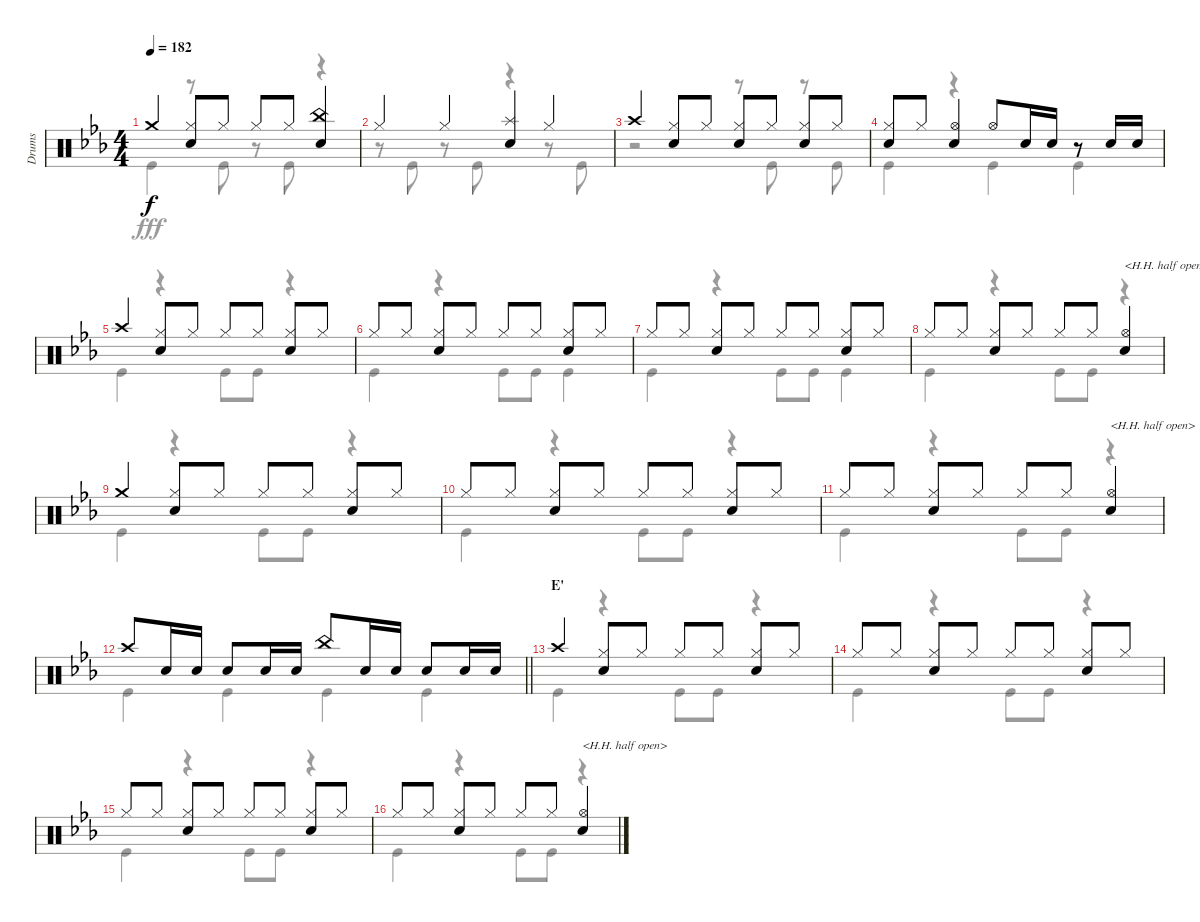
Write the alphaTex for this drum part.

\track ("Drums" "Drums") {instrument percussion}
\staff {score}
\articulation defaults
\voice
\ts (4 4)
\tempo 182
\clef neutral
\ks eb "Crash medium (hit)".4{dy f}
("Hi-Hat (closed)" "Snare (hit) 2").8 "Hi-Hat (closed)".8 "Hi-Hat (closed)".8 "Hi-Hat (closed)".8 ("China (hit)" "Snare (hit) 2").4 |
"Hi-Hat (closed)".4 "Hi-Hat (closed)".4 ("Splash (hit)" "Snare (hit) 2").4 "Hi-Hat (closed)".4 |
"Crash high (hit)".4 ("Hi-Hat (closed)" "Snare (hit) 2").8 "Hi-Hat (closed)".8 ("Hi-Hat (closed)" "Snare (hit) 2").8 "Hi-Hat (closed)".8 ("Hi-Hat (closed)" "Snare (hit) 2").8 "Hi-Hat (closed)".8 |
("Hi-Hat (closed)" "Snare (hit) 2").8 "Hi-Hat (closed)".8 ("Hi-Hat (open)" "Snare (hit) 2").4 "Hi-Hat (open)".8 "Snare (hit) 2".16 "Snare (hit) 2".16 r.8 "Snare (hit) 2".16 "Snare (hit) 2".16 |
"Crash high (hit)".4 ("Hi-Hat (closed)" "Snare (hit) 2").8 "Hi-Hat (closed)".8 "Hi-Hat (closed)".8 "Hi-Hat (closed)".8 ("Hi-Hat (closed)" "Snare (hit) 2").8 "Hi-Hat (closed)".8 |
"Hi-Hat (closed)".8 "Hi-Hat (closed)".8 ("Hi-Hat (closed)" "Snare (hit) 2").8 "Hi-Hat (closed)".8 "Hi-Hat (closed)".8 "Hi-Hat (closed)".8 ("Hi-Hat (closed)" "Snare (hit) 2").8 "Hi-Hat (closed)".8 |
"Hi-Hat (closed)".8 "Hi-Hat (closed)".8 ("Hi-Hat (closed)" "Snare (hit) 2").8 "Hi-Hat (closed)".8 "Hi-Hat (closed)".8 "Hi-Hat (closed)".8 ("Hi-Hat (closed)" "Snare (hit) 2").8 "Hi-Hat (closed)".8 |
"Hi-Hat (closed)".8 "Hi-Hat (closed)".8 ("Hi-Hat (closed)" "Snare (hit) 2").8 "Hi-Hat (closed)".8 "Hi-Hat (closed)".8 "Hi-Hat (closed)".8 ("Hi-Hat (open)" "Snare (hit) 2").4{txt "<H.H. half open>"} |
"Crash medium (hit)".4 ("Hi-Hat (closed)" "Snare (hit) 2").8 "Hi-Hat (closed)".8 "Hi-Hat (closed)".8 "Hi-Hat (closed)".8 ("Hi-Hat (closed)" "Snare (hit) 2").8 "Hi-Hat (closed)".8 |
"Hi-Hat (closed)".8 "Hi-Hat (closed)".8 ("Hi-Hat (closed)" "Snare (hit) 2").8 "Hi-Hat (closed)".8 "Hi-Hat (closed)".8 "Hi-Hat (closed)".8 ("Hi-Hat (closed)" "Snare (hit) 2").8 "Hi-Hat (closed)".8 |
"Hi-Hat (closed)".8 "Hi-Hat (closed)".8 ("Hi-Hat (closed)" "Snare (hit) 2").8 "Hi-Hat (closed)".8 "Hi-Hat (closed)".8 "Hi-Hat (closed)".8 ("Hi-Hat (open)" "Snare (hit) 2").4{txt "<H.H. half open>"} |
\barLineRight lightlight "Crash high (hit)".8 "Snare (hit) 2".16 "Snare (hit) 2".16 "Snare (hit) 2".8 "Snare (hit) 2".16 "Snare (hit) 2".16 "China (hit)".8 "Snare (hit) 2".16 "Snare (hit) 2".16 "Snare (hit) 2".8 "Snare (hit) 2".16 "Snare (hit) 2".16
|
\section ("" "E'")
"Crash high (hit)".4 ("Hi-Hat (closed)" "Snare (hit) 2").8 "Hi-Hat (closed)".8 "Hi-Hat (closed)".8 "Hi-Hat (closed)".8 ("Hi-Hat (closed)" "Snare (hit) 2").8 "Hi-Hat (closed)".8 |
"Hi-Hat (closed)".8 "Hi-Hat (closed)".8 ("Hi-Hat (closed)" "Snare (hit) 2").8 "Hi-Hat (closed)".8 "Hi-Hat (closed)".8 "Hi-Hat (closed)".8 ("Hi-Hat (closed)" "Snare (hit) 2").8 "Hi-Hat (closed)".8 |
"Hi-Hat (closed)".8 "Hi-Hat (closed)".8 ("Hi-Hat (closed)" "Snare (hit) 2").8 "Hi-Hat (closed)".8 "Hi-Hat (closed)".8 "Hi-Hat (closed)".8 ("Hi-Hat (closed)" "Snare (hit) 2").8 "Hi-Hat (closed)".8 |
"Hi-Hat (closed)".8 "Hi-Hat (closed)".8 ("Hi-Hat (closed)" "Snare (hit) 2").8 "Hi-Hat (closed)".8 "Hi-Hat (closed)".8 "Hi-Hat (closed)".8 ("Hi-Hat (open)" "Snare (hit) 2").4{txt "<H.H. half open>"}
\voice
\clef neutral
\ottava regular
\simile none
\ks eb "Kick (hit)".4{dy fff}
r.8 "Kick (hit)".8 r.8 "Kick (hit)".8 r.4 |
r.8 "Kick (hit)".8 r.8 "Kick (hit)".8 r.4 r.8 "Kick (hit)".8 |
r.2 r.8 "Kick (hit)".8 r.8 "Kick (hit)".8 |
"Kick (hit)".4 r.4 "Kick (hit)".4 "Kick (hit)".4 |
"Kick (hit)".4 r.4 "Kick (hit)".8 "Kick (hit)".8 r.4 |
"Kick (hit)".4 r.4 "Kick (hit)".8 "Kick (hit)".8 "Kick (hit)".4 |
"Kick (hit)".4 r.4 "Kick (hit)".8 "Kick (hit)".8 "Kick (hit)".4 |
"Kick (hit)".4 r.4 "Kick (hit)".8 "Kick (hit)".8 r.4 |
"Kick (hit)".4 r.4 "Kick (hit)".8 "Kick (hit)".8 r.4 |
"Kick (hit)".4 r.4 "Kick (hit)".8 "Kick (hit)".8 r.4 |
"Kick (hit)".4 r.4 "Kick (hit)".8 "Kick (hit)".8 r.4 |
\barLineRight lightlight "Kick (hit)".4 "Kick (hit)".4 "Kick (hit)".4 "Kick (hit)".4
|
"Kick (hit)".4 r.4 "Kick (hit)".8 "Kick (hit)".8 r.4 |
"Kick (hit)".4 r.4 "Kick (hit)".8 "Kick (hit)".8 r.4 |
"Kick (hit)".4 r.4 "Kick (hit)".8 "Kick (hit)".8 r.4 |
"Kick (hit)".4 r.4 "Kick (hit)".8 "Kick (hit)".8 r.4
